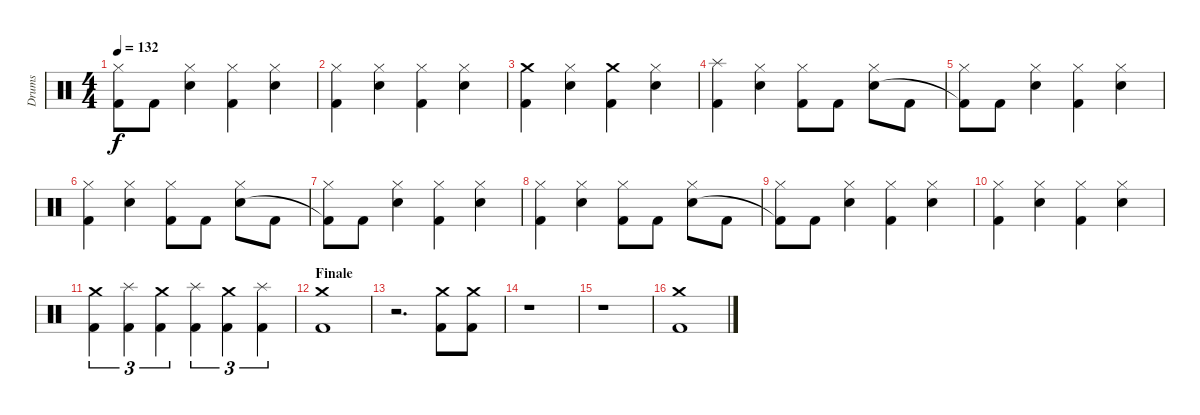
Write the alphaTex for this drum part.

\track ("Drums" "Drums") {instrument percussion}
\staff {score}
\articulation defaults
\ts (4 4)
\tempo 132
\clef neutral
\ks c
("Hi-Hat (closed)" "Kick (hit) 2"{t}).8{dy f} "Kick (hit) 2".8 ("Hi-Hat (closed)" "Snare (hit) 2").4 ("Hi-Hat (closed)" "Kick (hit) 2").4 ("Hi-Hat (closed)" "Snare (hit) 2").4 |
("Hi-Hat (closed)" "Kick (hit) 2").4 ("Hi-Hat (closed)" "Snare (hit) 2").4 ("Hi-Hat (closed)" "Kick (hit) 2").4 ("Hi-Hat (closed)" "Snare (hit) 2").4 |
("Crash medium (hit)" "Kick (hit) 2").4 ("Hi-Hat (closed)" "Snare (hit) 2").4 ("Crash medium (hit)" "Kick (hit) 2").4 ("Hi-Hat (closed)" "Snare (hit) 2").4 |
("Splash (hit)" "Kick (hit) 2").4 ("Hi-Hat (closed)" "Snare (hit) 2").4 ("Hi-Hat (closed)" "Kick (hit) 2").8 "Kick (hit) 2".8 ("Hi-Hat (closed)" "Snare (hit) 2").8 "Kick (hit) 2".8 |
("Hi-Hat (closed)" "Kick (hit) 2"{t}).8 "Kick (hit) 2".8 ("Hi-Hat (closed)" "Snare (hit) 2").4 ("Hi-Hat (closed)" "Kick (hit) 2").4 ("Hi-Hat (closed)" "Snare (hit) 2").4 |
("Hi-Hat (closed)" "Kick (hit) 2").4 ("Hi-Hat (closed)" "Snare (hit) 2").4 ("Hi-Hat (closed)" "Kick (hit) 2").8 "Kick (hit) 2".8 ("Hi-Hat (closed)" "Snare (hit) 2").8 "Kick (hit) 2".8 |
("Hi-Hat (closed)" "Kick (hit) 2"{t}).8 "Kick (hit) 2".8 ("Hi-Hat (closed)" "Snare (hit) 2").4 ("Hi-Hat (closed)" "Kick (hit) 2").4 ("Hi-Hat (closed)" "Snare (hit) 2").4 |
("Hi-Hat (closed)" "Kick (hit) 2").4 ("Hi-Hat (closed)" "Snare (hit) 2").4 ("Hi-Hat (closed)" "Kick (hit) 2").8 "Kick (hit) 2".8 ("Hi-Hat (closed)" "Snare (hit) 2").8 "Kick (hit) 2".8 |
("Hi-Hat (closed)" "Kick (hit) 2"{t}).8 "Kick (hit) 2".8 ("Hi-Hat (closed)" "Snare (hit) 2").4 ("Hi-Hat (closed)" "Kick (hit) 2").4 ("Hi-Hat (closed)" "Snare (hit) 2").4 |
("Hi-Hat (closed)" "Kick (hit) 2").4 ("Hi-Hat (closed)" "Snare (hit) 2").4 ("Hi-Hat (closed)" "Kick (hit) 2").4 ("Hi-Hat (closed)" "Snare (hit) 2").4 |
("Crash medium (hit)" "Kick (hit) 2").4{tu (3 2)} ("Splash (hit)" "Kick (hit) 2").4{tu (3 2)} ("Crash medium (hit)" "Kick (hit) 2").4{tu (3 2)} ("Splash (hit)" "Kick (hit) 2").4{tu (3 2)} ("Crash medium (hit)" "Kick (hit) 2").4{tu (3 2)} ("Splash (hit)" "Kick (hit) 2").4{tu (3 2)} |
\section ("" "Finale")
("Crash medium (hit)" "Kick (hit) 2").1 |
r.2{d} ("Crash medium (hit)" "Kick (hit) 2").8 ("Crash medium (hit)" "Kick (hit) 2").8 |
r.1 |
r.1 |
("Crash medium (hit)" "Kick (hit) 2").1
